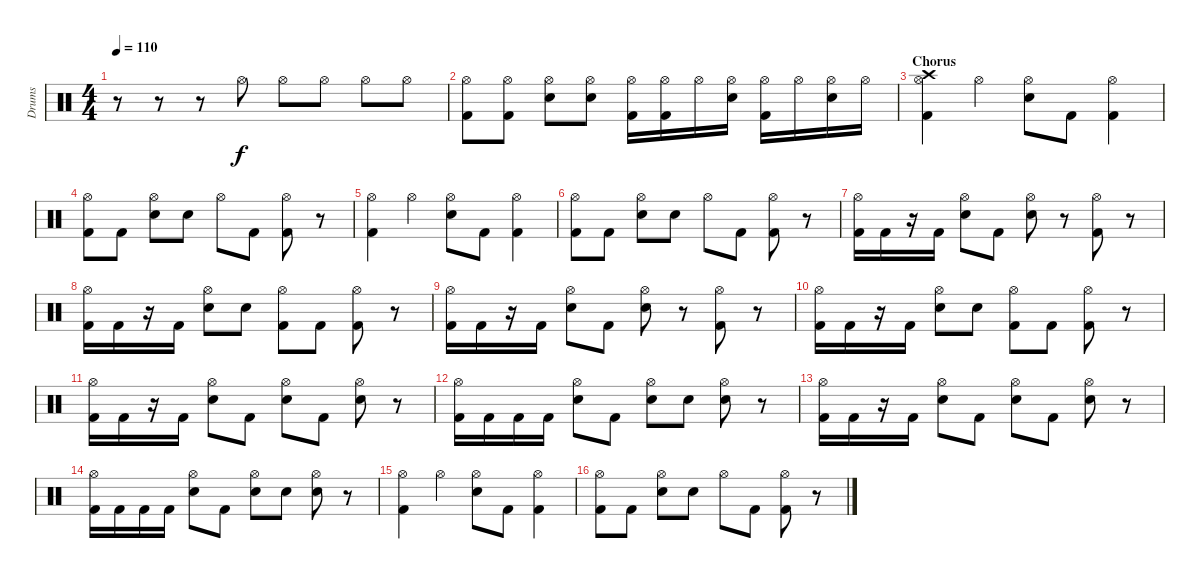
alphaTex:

\track ("Drums" "Drums") {instrument percussion}
\staff {score}
\articulation defaults
\ts (4 4)
\tempo 110
\clef neutral
\ks c
r.8{dy f} r.8 r.8{volume 0} "Hi-Hat (open)".8{volume 14} "Hi-Hat (open)".8 "Hi-Hat (open)".8 "Hi-Hat (open)".8 "Hi-Hat (open)".8 |
("Hi-Hat (open)" "Kick (hit) 2").8 ("Hi-Hat (open)" "Kick (hit) 2").8 ("Hi-Hat (open)" "Snare (hit) 2").8 ("Hi-Hat (open)" "Snare (hit) 2").8 ("Hi-Hat (open)" "Kick (hit) 2").16 ("Hi-Hat (open)" "Kick (hit) 2").16 "Hi-Hat (open)".16 ("Hi-Hat (open)" "Snare (hit) 2").16 ("Hi-Hat (open)" "Kick (hit) 2").16 "Hi-Hat (open)".16 ("Hi-Hat (open)" "Snare (hit) 2").16 "Hi-Hat (open)".16 |
\section ("" "Chorus")
("Hi-Hat (open)" "Crash high (hit)" "Kick (hit) 2").4{volume 14} "Hi-Hat (open)".4 ("Hi-Hat (open)" "Snare (hit) 2").8 "Kick (hit) 2".8 ("Hi-Hat (open)" "Kick (hit) 2").4 |
("Hi-Hat (open)" "Kick (hit) 2").8 "Kick (hit) 2".8 ("Hi-Hat (open)" "Snare (hit) 2").8 "Snare (hit) 2".8 "Hi-Hat (open)".8 "Kick (hit) 2".8 ("Hi-Hat (open)" "Kick (hit) 2").8 r.8 |
("Hi-Hat (open)" "Kick (hit) 2").4 "Hi-Hat (open)".4 ("Hi-Hat (open)" "Snare (hit) 2").8 "Kick (hit) 2".8 ("Hi-Hat (open)" "Kick (hit) 2").4 |
("Hi-Hat (open)" "Kick (hit) 2").8 "Kick (hit) 2".8 ("Hi-Hat (open)" "Snare (hit) 2").8 "Snare (hit) 2".8 "Hi-Hat (open)".8 "Kick (hit) 2".8 ("Hi-Hat (open)" "Kick (hit) 2").8 r.8 |
("Hi-Hat (open)" "Kick (hit) 2").16 "Kick (hit) 2".16 r.16 "Kick (hit) 2".16 ("Hi-Hat (open)" "Snare (hit) 2").8 "Kick (hit) 2".8 ("Hi-Hat (open)" "Snare (hit) 2").8 r.8 ("Hi-Hat (open)" "Kick (hit) 2").8 r.8 |
("Hi-Hat (open)" "Kick (hit) 2").16 "Kick (hit) 2".16 r.16 "Kick (hit) 2".16 ("Hi-Hat (open)" "Snare (hit) 2").8 "Snare (hit) 2".8 ("Hi-Hat (open)" "Kick (hit) 2").8 "Kick (hit) 2".8 ("Hi-Hat (open)" "Kick (hit) 2").8 r.8 |
("Hi-Hat (open)" "Kick (hit) 2").16 "Kick (hit) 2".16 r.16 "Kick (hit) 2".16 ("Hi-Hat (open)" "Snare (hit) 2").8 "Kick (hit) 2".8 ("Hi-Hat (open)" "Snare (hit) 2").8 r.8 ("Hi-Hat (open)" "Kick (hit) 2").8 r.8 |
("Hi-Hat (open)" "Kick (hit) 2").16 "Kick (hit) 2".16 r.16 "Kick (hit) 2".16 ("Hi-Hat (open)" "Snare (hit) 2").8 "Snare (hit) 2".8 ("Hi-Hat (open)" "Kick (hit) 2").8 "Kick (hit) 2".8 ("Hi-Hat (open)" "Kick (hit) 2").8 r.8 |
("Hi-Hat (open)" "Kick (hit) 2").16 "Kick (hit) 2".16 r.16 "Kick (hit) 2".16 ("Hi-Hat (open)" "Snare (hit) 2").8 "Kick (hit) 2".8 ("Hi-Hat (open)" "Snare (hit) 2").8 "Kick (hit) 2".8 ("Hi-Hat (open)" "Snare (hit) 2").8 r.8 |
("Hi-Hat (open)" "Kick (hit) 2").16 "Kick (hit) 2".16 "Kick (hit) 2".16 "Kick (hit) 2".16 ("Hi-Hat (open)" "Snare (hit) 2").8 "Kick (hit) 2".8 ("Hi-Hat (open)" "Snare (hit) 2").8 "Snare (hit) 2".8 ("Hi-Hat (open)" "Snare (hit) 2").8 r.8 |
("Hi-Hat (open)" "Kick (hit) 2").16 "Kick (hit) 2".16 r.16 "Kick (hit) 2".16 ("Hi-Hat (open)" "Snare (hit) 2").8 "Kick (hit) 2".8 ("Hi-Hat (open)" "Snare (hit) 2").8 "Kick (hit) 2".8 ("Hi-Hat (open)" "Snare (hit) 2").8 r.8 |
("Hi-Hat (open)" "Kick (hit) 2").16 "Kick (hit) 2".16 "Kick (hit) 2".16 "Kick (hit) 2".16 ("Hi-Hat (open)" "Snare (hit) 2").8 "Kick (hit) 2".8 ("Hi-Hat (open)" "Snare (hit) 2").8 "Snare (hit) 2".8 ("Hi-Hat (open)" "Snare (hit) 2").8 r.8 |
("Hi-Hat (open)" "Kick (hit) 2").4 "Hi-Hat (open)".4 ("Hi-Hat (open)" "Snare (hit) 2").8 "Kick (hit) 2".8 ("Hi-Hat (open)" "Kick (hit) 2").4 |
("Hi-Hat (open)" "Kick (hit) 2").8 "Kick (hit) 2".8 ("Hi-Hat (open)" "Snare (hit) 2").8 "Snare (hit) 2".8 "Hi-Hat (open)".8 "Kick (hit) 2".8 ("Hi-Hat (open)" "Kick (hit) 2").8 r.8
